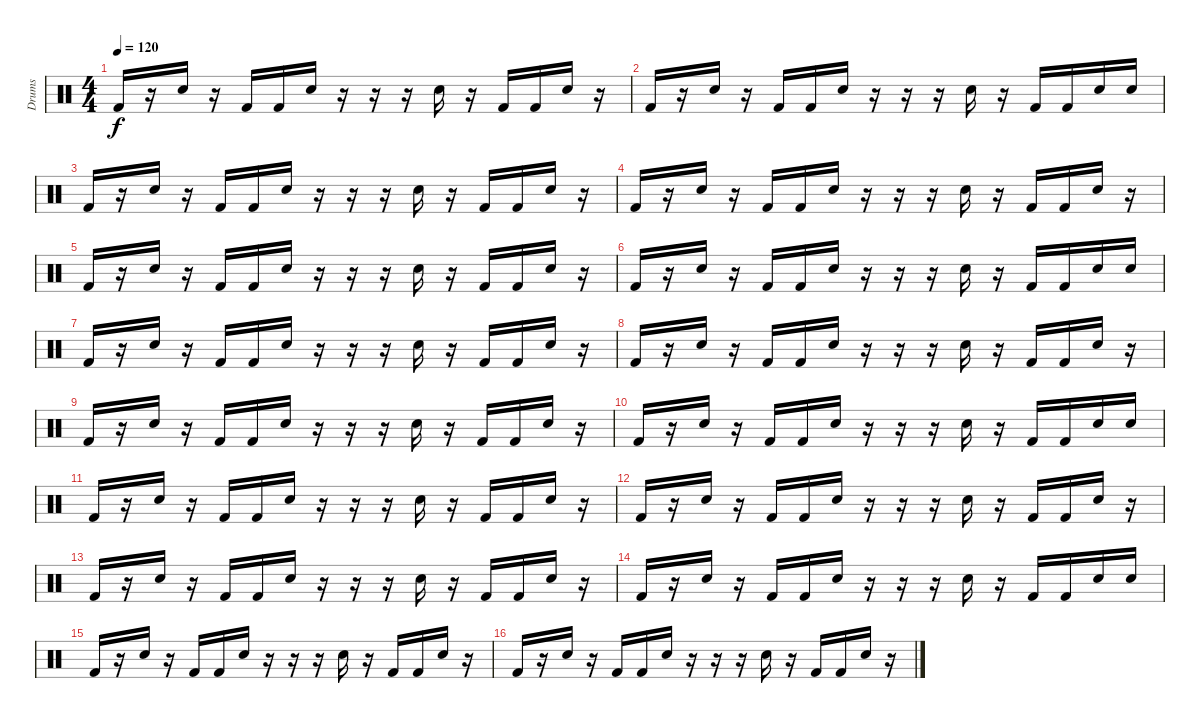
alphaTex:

\track ("Drums" "Drums") {instrument percussion}
\staff {score}
\articulation defaults
\ts (4 4)
\tempo 120
\clef neutral
\ks c "Kick (hit) 2".16{dy f}
r.16 "Snare (hit) 2".16 r.16 "Kick (hit) 2".16 "Kick (hit) 2".16 "Snare (hit) 2".16 r.16 r.16 r.16 "Snare (hit) 2".16 r.16 "Kick (hit) 2".16 "Kick (hit) 2".16 "Snare (hit) 2".16 r.16 |
"Kick (hit) 2".16 r.16 "Snare (hit) 2".16 r.16 "Kick (hit) 2".16 "Kick (hit) 2".16 "Snare (hit) 2".16 r.16 r.16 r.16 "Snare (hit) 2".16 r.16 "Kick (hit) 2".16 "Kick (hit) 2".16 "Snare (hit) 2".16 "Snare (hit) 2".16 |
"Kick (hit) 2".16 r.16 "Snare (hit) 2".16 r.16 "Kick (hit) 2".16 "Kick (hit) 2".16 "Snare (hit) 2".16 r.16 r.16 r.16 "Snare (hit) 2".16 r.16 "Kick (hit) 2".16 "Kick (hit) 2".16 "Snare (hit) 2".16 r.16 |
"Kick (hit) 2".16 r.16 "Snare (hit) 2".16 r.16 "Kick (hit) 2".16 "Kick (hit) 2".16 "Snare (hit) 2".16 r.16 r.16 r.16 "Snare (hit) 2".16 r.16 "Kick (hit) 2".16 "Kick (hit) 2".16 "Snare (hit) 2".16 r.16 |
"Kick (hit) 2".16 r.16 "Snare (hit) 2".16 r.16 "Kick (hit) 2".16 "Kick (hit) 2".16 "Snare (hit) 2".16 r.16 r.16 r.16 "Snare (hit) 2".16 r.16 "Kick (hit) 2".16 "Kick (hit) 2".16 "Snare (hit) 2".16 r.16 |
"Kick (hit) 2".16{volume 13} r.16 "Snare (hit) 2".16 r.16 "Kick (hit) 2".16 "Kick (hit) 2".16 "Snare (hit) 2".16 r.16 r.16 r.16 "Snare (hit) 2".16 r.16 "Kick (hit) 2".16 "Kick (hit) 2".16 "Snare (hit) 2".16 "Snare (hit) 2".16 |
"Kick (hit) 2".16 r.16 "Snare (hit) 2".16 r.16 "Kick (hit) 2".16 "Kick (hit) 2".16 "Snare (hit) 2".16 r.16 r.16 r.16 "Snare (hit) 2".16 r.16 "Kick (hit) 2".16 "Kick (hit) 2".16 "Snare (hit) 2".16 r.16 |
"Kick (hit) 2".16 r.16 "Snare (hit) 2".16 r.16 "Kick (hit) 2".16 "Kick (hit) 2".16 "Snare (hit) 2".16 r.16 r.16 r.16 "Snare (hit) 2".16 r.16 "Kick (hit) 2".16 "Kick (hit) 2".16 "Snare (hit) 2".16 r.16 |
"Kick (hit) 2".16 r.16 "Snare (hit) 2".16 r.16 "Kick (hit) 2".16 "Kick (hit) 2".16 "Snare (hit) 2".16 r.16 r.16 r.16 "Snare (hit) 2".16 r.16 "Kick (hit) 2".16 "Kick (hit) 2".16 "Snare (hit) 2".16 r.16 |
"Kick (hit) 2".16 r.16 "Snare (hit) 2".16 r.16 "Kick (hit) 2".16 "Kick (hit) 2".16 "Snare (hit) 2".16 r.16 r.16 r.16 "Snare (hit) 2".16 r.16 "Kick (hit) 2".16 "Kick (hit) 2".16 "Snare (hit) 2".16 "Snare (hit) 2".16 |
"Kick (hit) 2".16 r.16 "Snare (hit) 2".16 r.16 "Kick (hit) 2".16 "Kick (hit) 2".16 "Snare (hit) 2".16 r.16 r.16 r.16 "Snare (hit) 2".16 r.16 "Kick (hit) 2".16 "Kick (hit) 2".16 "Snare (hit) 2".16 r.16 |
"Kick (hit) 2".16 r.16 "Snare (hit) 2".16 r.16 "Kick (hit) 2".16 "Kick (hit) 2".16 "Snare (hit) 2".16 r.16 r.16 r.16 "Snare (hit) 2".16 r.16 "Kick (hit) 2".16 "Kick (hit) 2".16 "Snare (hit) 2".16 r.16 |
"Kick (hit) 2".16 r.16 "Snare (hit) 2".16 r.16 "Kick (hit) 2".16 "Kick (hit) 2".16 "Snare (hit) 2".16 r.16 r.16 r.16 "Snare (hit) 2".16 r.16 "Kick (hit) 2".16 "Kick (hit) 2".16 "Snare (hit) 2".16 r.16 |
"Kick (hit) 2".16 r.16 "Snare (hit) 2".16 r.16 "Kick (hit) 2".16 "Kick (hit) 2".16 "Snare (hit) 2".16 r.16 r.16 r.16 "Snare (hit) 2".16 r.16 "Kick (hit) 2".16 "Kick (hit) 2".16 "Snare (hit) 2".16 "Snare (hit) 2".16 |
"Kick (hit) 2".16 r.16 "Snare (hit) 2".16 r.16 "Kick (hit) 2".16 "Kick (hit) 2".16 "Snare (hit) 2".16 r.16 r.16 r.16 "Snare (hit) 2".16 r.16 "Kick (hit) 2".16 "Kick (hit) 2".16 "Snare (hit) 2".16 r.16 |
"Kick (hit) 2".16 r.16 "Snare (hit) 2".16 r.16 "Kick (hit) 2".16 "Kick (hit) 2".16 "Snare (hit) 2".16 r.16 r.16 r.16 "Snare (hit) 2".16 r.16 "Kick (hit) 2".16 "Kick (hit) 2".16 "Snare (hit) 2".16 r.16
